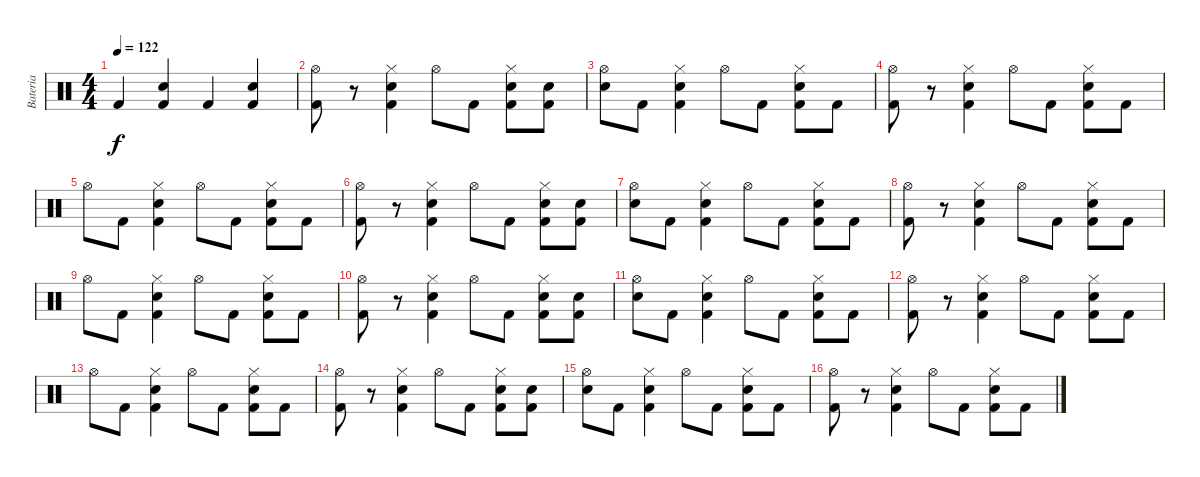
\track ("Bateria" "Bateria") {instrument percussion}
\staff {score}
\articulation defaults
\ts (4 4)
\tempo 122
\clef neutral
\ks c "Kick (hit) 2".4{dy f}
("Kick (hit) 2" "Snare (hit) 2").4 "Kick (hit) 2".4 ("Kick (hit) 2" "Snare (hit) 2").4 |
("Kick (hit) 2" "Hi-Hat (open)").8 r.8 ("Kick (hit) 2" "Snare (hit) 2" "Hi-Hat (closed)").4 "Hi-Hat (open)".8 "Kick (hit) 2".8 ("Kick (hit) 2" "Snare (hit) 2" "Hi-Hat (closed)").8 ("Kick (hit) 2" "Snare (hit)").8 |
("Hi-Hat (open)" "Snare (hit)").8 "Kick (hit) 2".8 ("Kick (hit) 2" "Snare (hit) 2" "Hi-Hat (closed)").4 "Hi-Hat (open)".8 "Kick (hit) 2".8 ("Kick (hit) 2" "Snare (hit) 2" "Hi-Hat (closed)").8 "Kick (hit) 2".8 |
("Kick (hit) 2" "Hi-Hat (open)").8 r.8 ("Kick (hit) 2" "Snare (hit) 2" "Hi-Hat (closed)").4 "Hi-Hat (open)".8 "Kick (hit) 2".8 ("Kick (hit) 2" "Snare (hit) 2" "Hi-Hat (closed)").8 "Kick (hit) 2".8 |
"Hi-Hat (open)".8 "Kick (hit) 2".8 ("Kick (hit) 2" "Snare (hit) 2" "Hi-Hat (closed)").4 "Hi-Hat (open)".8 "Kick (hit) 2".8 ("Kick (hit) 2" "Snare (hit) 2" "Hi-Hat (closed)").8 "Kick (hit) 2".8 |
("Kick (hit) 2" "Hi-Hat (open)").8 r.8 ("Kick (hit) 2" "Snare (hit) 2" "Hi-Hat (closed)").4 "Hi-Hat (open)".8 "Kick (hit) 2".8 ("Kick (hit) 2" "Snare (hit) 2" "Hi-Hat (closed)").8 ("Kick (hit) 2" "Snare (hit)").8 |
("Hi-Hat (open)" "Snare (hit)").8 "Kick (hit) 2".8 ("Kick (hit) 2" "Snare (hit) 2" "Hi-Hat (closed)").4 "Hi-Hat (open)".8 "Kick (hit) 2".8 ("Kick (hit) 2" "Snare (hit) 2" "Hi-Hat (closed)").8 "Kick (hit) 2".8 |
("Kick (hit) 2" "Hi-Hat (open)").8 r.8 ("Kick (hit) 2" "Snare (hit) 2" "Hi-Hat (closed)").4 "Hi-Hat (open)".8 "Kick (hit) 2".8 ("Kick (hit) 2" "Snare (hit) 2" "Hi-Hat (closed)").8 "Kick (hit) 2".8 |
"Hi-Hat (open)".8 "Kick (hit) 2".8 ("Kick (hit) 2" "Snare (hit) 2" "Hi-Hat (closed)").4 "Hi-Hat (open)".8 "Kick (hit) 2".8 ("Kick (hit) 2" "Snare (hit) 2" "Hi-Hat (closed)").8 "Kick (hit) 2".8 |
("Kick (hit) 2" "Hi-Hat (open)").8 r.8 ("Kick (hit) 2" "Snare (hit) 2" "Hi-Hat (closed)").4 "Hi-Hat (open)".8 "Kick (hit) 2".8 ("Kick (hit) 2" "Snare (hit) 2" "Hi-Hat (closed)").8 ("Kick (hit) 2" "Snare (hit)").8 |
("Hi-Hat (open)" "Snare (hit)").8 "Kick (hit) 2".8 ("Kick (hit) 2" "Snare (hit) 2" "Hi-Hat (closed)").4 "Hi-Hat (open)".8 "Kick (hit) 2".8 ("Kick (hit) 2" "Snare (hit) 2" "Hi-Hat (closed)").8 "Kick (hit) 2".8 |
("Kick (hit) 2" "Hi-Hat (open)").8 r.8 ("Kick (hit) 2" "Snare (hit) 2" "Hi-Hat (closed)").4 "Hi-Hat (open)".8 "Kick (hit) 2".8 ("Kick (hit) 2" "Snare (hit) 2" "Hi-Hat (closed)").8 "Kick (hit) 2".8 |
"Hi-Hat (open)".8 "Kick (hit) 2".8 ("Kick (hit) 2" "Snare (hit) 2" "Hi-Hat (closed)").4 "Hi-Hat (open)".8 "Kick (hit) 2".8 ("Kick (hit) 2" "Snare (hit) 2" "Hi-Hat (closed)").8 "Kick (hit) 2".8 |
("Kick (hit) 2" "Hi-Hat (open)").8 r.8 ("Kick (hit) 2" "Snare (hit) 2" "Hi-Hat (closed)").4 "Hi-Hat (open)".8 "Kick (hit) 2".8 ("Kick (hit) 2" "Snare (hit) 2" "Hi-Hat (closed)").8 ("Kick (hit) 2" "Snare (hit)").8 |
("Hi-Hat (open)" "Snare (hit)").8 "Kick (hit) 2".8 ("Kick (hit) 2" "Snare (hit) 2" "Hi-Hat (closed)").4 "Hi-Hat (open)".8 "Kick (hit) 2".8 ("Kick (hit) 2" "Snare (hit) 2" "Hi-Hat (closed)").8 "Kick (hit) 2".8 |
("Kick (hit) 2" "Hi-Hat (open)").8 r.8 ("Kick (hit) 2" "Snare (hit) 2" "Hi-Hat (closed)").4 "Hi-Hat (open)".8 "Kick (hit) 2".8 ("Kick (hit) 2" "Snare (hit) 2" "Hi-Hat (closed)").8 "Kick (hit) 2".8
